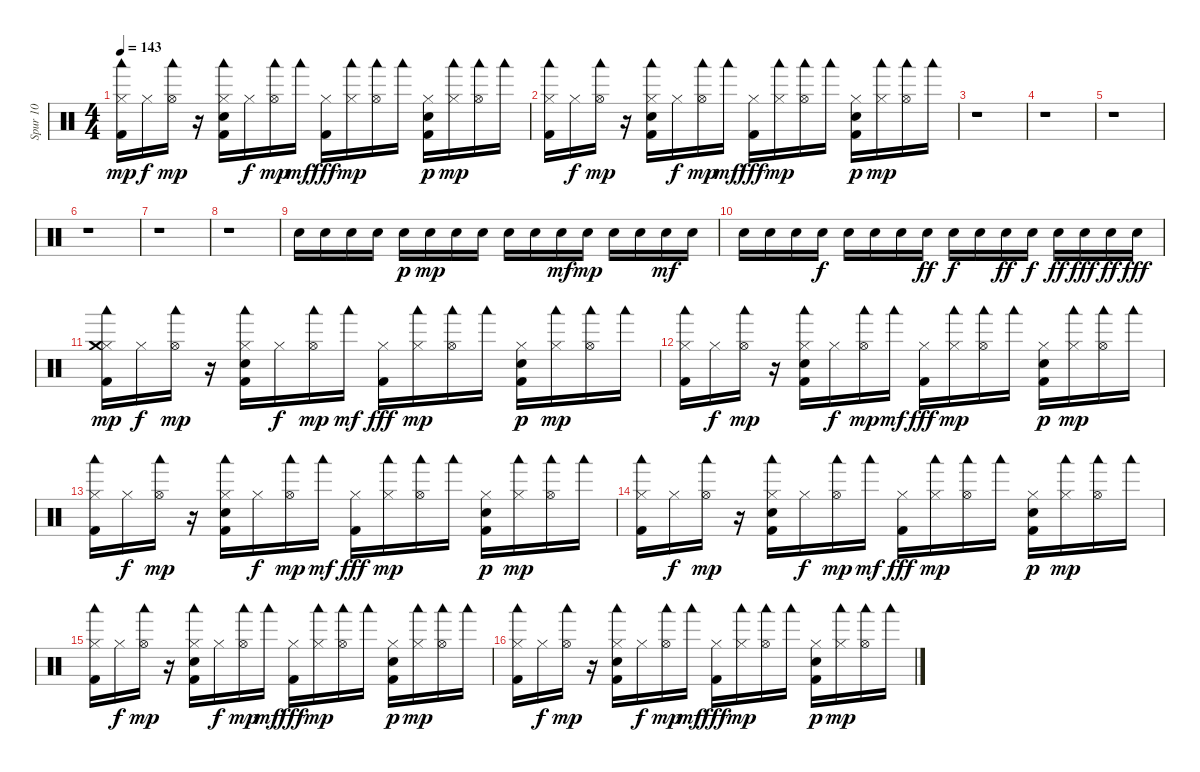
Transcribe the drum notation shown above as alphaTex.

\track ("Spur 10" "Spur 10") {instrument percussion}
\staff {score}
\articulation defaults
\ts (4 4)
\tempo 143
\clef neutral
\ks c
("Kick (hit) 2" "Hi-Hat (closed)" "Woodblock low (hit)").16{dy mp} "Hi-Hat (closed)".16{dy f} ("Hi-Hat (open)" "Woodblock low (hit)").16{dy mp} r.16 ("Kick (hit) 2" "Hi-Hat (closed)" "Electric Snare (hit)" "Woodblock low (hit)").16 "Hi-Hat (closed)".16{dy f} ("Hi-Hat (open)" "Woodblock low (hit)").16{dy mp} "Woodblock low (hit)".16{dy mf} ("Kick (hit) 2" "Hi-Hat (closed)").16{dy fff} ("Hi-Hat (closed)" "Woodblock low (hit)").16{dy mp} ("Hi-Hat (open)" "Woodblock low (hit)").16 "Woodblock low (hit)".16 ("Kick (hit) 2" "Hi-Hat (closed)" "Electric Snare (hit)").16{dy p} ("Hi-Hat (closed)" "Woodblock low (hit)").16{dy mp} ("Hi-Hat (open)" "Woodblock low (hit)").16 "Woodblock low (hit)".16 |
("Kick (hit) 2" "Hi-Hat (closed)" "Woodblock low (hit)").16 "Hi-Hat (closed)".16{dy f} ("Hi-Hat (open)" "Woodblock low (hit)").16{dy mp} r.16 ("Kick (hit) 2" "Hi-Hat (closed)" "Electric Snare (hit)" "Woodblock low (hit)").16 "Hi-Hat (closed)".16{dy f} ("Hi-Hat (open)" "Woodblock low (hit)").16{dy mp} "Woodblock low (hit)".16{dy mf} ("Kick (hit) 2" "Hi-Hat (closed)").16{dy fff} ("Hi-Hat (closed)" "Woodblock low (hit)").16{dy mp} ("Hi-Hat (open)" "Woodblock low (hit)").16 "Woodblock low (hit)".16 ("Kick (hit) 2" "Hi-Hat (closed)" "Electric Snare (hit)").16{dy p} ("Hi-Hat (closed)" "Woodblock low (hit)").16{dy mp} ("Hi-Hat (open)" "Woodblock low (hit)").16 "Woodblock low (hit)".16 |
r.1 |
r.1 |
r.1 |
r.1 |
r.1 |
r.1 |
"Snare (hit) 2".16 "Snare (hit) 2".16 "Snare (hit) 2".16 "Snare (hit) 2".16 "Snare (hit) 2".16{dy p} "Snare (hit) 2".16{dy mp} "Snare (hit) 2".16 "Snare (hit) 2".16 "Snare (hit) 2".16 "Snare (hit) 2".16 "Snare (hit) 2".16{dy mf} "Snare (hit) 2".16{dy mp} "Snare (hit) 2".16 "Snare (hit) 2".16 "Snare (hit) 2".16{dy mf} "Snare (hit) 2".16 |
"Snare (hit) 2".16 "Snare (hit) 2".16 "Snare (hit) 2".16 "Snare (hit) 2".16{dy f} "Snare (hit) 2".16 "Snare (hit) 2".16 "Snare (hit) 2".16 "Snare (hit) 2".16{dy ff} "Snare (hit) 2".16{dy f} "Snare (hit) 2".16 "Snare (hit) 2".16{dy ff} "Snare (hit) 2".16{dy f} "Snare (hit) 2".16{dy ff} "Snare (hit) 2".16{dy fff} "Snare (hit) 2".16{dy ff} "Snare (hit) 2".16{dy fff} |
("Kick (hit) 2" "Hi-Hat (closed)" "Crash medium (hit)" "Woodblock low (hit)").16{dy mp} "Hi-Hat (closed)".16{dy f} ("Hi-Hat (open)" "Woodblock low (hit)").16{dy mp} r.16 ("Kick (hit) 2" "Hi-Hat (closed)" "Electric Snare (hit)" "Woodblock low (hit)").16 "Hi-Hat (closed)".16{dy f} ("Hi-Hat (open)" "Woodblock low (hit)").16{dy mp} "Woodblock low (hit)".16{dy mf} ("Kick (hit) 2" "Hi-Hat (closed)").16{dy fff} ("Hi-Hat (closed)" "Woodblock low (hit)").16{dy mp} ("Hi-Hat (open)" "Woodblock low (hit)").16 "Woodblock low (hit)".16 ("Kick (hit) 2" "Hi-Hat (closed)" "Electric Snare (hit)").16{dy p} ("Hi-Hat (closed)" "Woodblock low (hit)").16{dy mp} ("Hi-Hat (open)" "Woodblock low (hit)").16 "Woodblock low (hit)".16 |
("Hi-Hat (closed)" "Kick (hit) 2" "Woodblock low (hit)").16 "Hi-Hat (closed)".16{dy f} ("Hi-Hat (open)" "Woodblock low (hit)").16{dy mp} r.16 ("Hi-Hat (closed)" "Kick (hit) 2" "Electric Snare (hit)" "Woodblock low (hit)").16 "Hi-Hat (closed)".16{dy f} ("Hi-Hat (open)" "Woodblock low (hit)").16{dy mp} "Woodblock low (hit)".16{dy mf} ("Hi-Hat (closed)" "Kick (hit) 2").16{dy fff} ("Hi-Hat (closed)" "Woodblock low (hit)").16{dy mp} ("Hi-Hat (open)" "Woodblock low (hit)").16 "Woodblock low (hit)".16 ("Hi-Hat (closed)" "Kick (hit) 2" "Electric Snare (hit)").16{dy p} ("Hi-Hat (closed)" "Woodblock low (hit)").16{dy mp} ("Hi-Hat (open)" "Woodblock low (hit)").16 "Woodblock low (hit)".16 |
("Hi-Hat (closed)" "Kick (hit) 2" "Woodblock low (hit)").16 "Hi-Hat (closed)".16{dy f} ("Hi-Hat (open)" "Woodblock low (hit)").16{dy mp} r.16 ("Hi-Hat (closed)" "Kick (hit) 2" "Electric Snare (hit)" "Woodblock low (hit)").16 "Hi-Hat (closed)".16{dy f} ("Hi-Hat (open)" "Woodblock low (hit)").16{dy mp} "Woodblock low (hit)".16{dy mf} ("Hi-Hat (closed)" "Kick (hit) 2").16{dy fff} ("Hi-Hat (closed)" "Woodblock low (hit)").16{dy mp} ("Hi-Hat (open)" "Woodblock low (hit)").16 "Woodblock low (hit)".16 ("Hi-Hat (closed)" "Kick (hit) 2" "Electric Snare (hit)").16{dy p} ("Hi-Hat (closed)" "Woodblock low (hit)").16{dy mp} ("Hi-Hat (open)" "Woodblock low (hit)").16 "Woodblock low (hit)".16 |
("Kick (hit) 2" "Hi-Hat (closed)" "Woodblock low (hit)").16 "Hi-Hat (closed)".16{dy f} ("Hi-Hat (open)" "Woodblock low (hit)").16{dy mp} r.16 ("Kick (hit) 2" "Hi-Hat (closed)" "Electric Snare (hit)" "Woodblock low (hit)").16 "Hi-Hat (closed)".16{dy f} ("Hi-Hat (open)" "Woodblock low (hit)").16{dy mp} "Woodblock low (hit)".16{dy mf} ("Kick (hit) 2" "Hi-Hat (closed)").16{dy fff} ("Hi-Hat (closed)" "Woodblock low (hit)").16{dy mp} ("Hi-Hat (open)" "Woodblock low (hit)").16 "Woodblock low (hit)".16 ("Kick (hit) 2" "Hi-Hat (closed)" "Electric Snare (hit)").16{dy p} ("Hi-Hat (closed)" "Woodblock low (hit)").16{dy mp} ("Hi-Hat (open)" "Woodblock low (hit)").16 "Woodblock low (hit)".16 |
("Kick (hit) 2" "Hi-Hat (closed)" "Woodblock low (hit)").16 "Hi-Hat (closed)".16{dy f} ("Hi-Hat (open)" "Woodblock low (hit)").16{dy mp} r.16 ("Kick (hit) 2" "Hi-Hat (closed)" "Electric Snare (hit)" "Woodblock low (hit)").16 "Hi-Hat (closed)".16{dy f} ("Hi-Hat (open)" "Woodblock low (hit)").16{dy mp} "Woodblock low (hit)".16{dy mf} ("Kick (hit) 2" "Hi-Hat (closed)").16{dy fff} ("Hi-Hat (closed)" "Woodblock low (hit)").16{dy mp} ("Hi-Hat (open)" "Woodblock low (hit)").16 "Woodblock low (hit)".16 ("Kick (hit) 2" "Hi-Hat (closed)" "Electric Snare (hit)").16{dy p} ("Hi-Hat (closed)" "Woodblock low (hit)").16{dy mp} ("Hi-Hat (open)" "Woodblock low (hit)").16 "Woodblock low (hit)".16 |
("Kick (hit) 2" "Hi-Hat (closed)" "Woodblock low (hit)").16 "Hi-Hat (closed)".16{dy f} ("Hi-Hat (open)" "Woodblock low (hit)").16{dy mp} r.16 ("Kick (hit) 2" "Hi-Hat (closed)" "Electric Snare (hit)" "Woodblock low (hit)").16 "Hi-Hat (closed)".16{dy f} ("Hi-Hat (open)" "Woodblock low (hit)").16{dy mp} "Woodblock low (hit)".16{dy mf} ("Kick (hit) 2" "Hi-Hat (closed)").16{dy fff} ("Hi-Hat (closed)" "Woodblock low (hit)").16{dy mp} ("Hi-Hat (open)" "Woodblock low (hit)").16 "Woodblock low (hit)".16 ("Kick (hit) 2" "Hi-Hat (closed)" "Electric Snare (hit)").16{dy p} ("Hi-Hat (closed)" "Woodblock low (hit)").16{dy mp} ("Hi-Hat (open)" "Woodblock low (hit)").16 "Woodblock low (hit)".16
